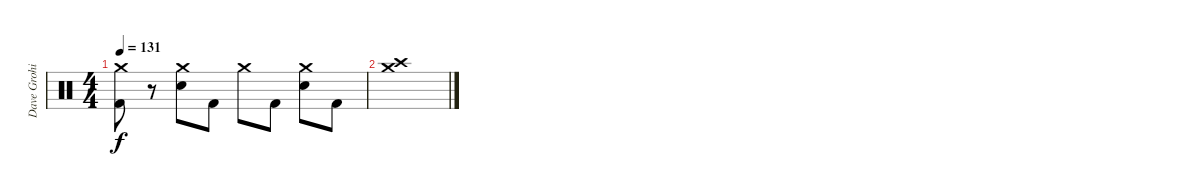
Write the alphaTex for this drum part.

\track ("Dave Grohi" "Dave Grohi") {instrument percussion}
\staff {score}
\articulation defaults
\ts (4 4)
\tempo 131
\clef neutral
\ks c
("Crash medium (hit)" "Kick (hit) 2").8{dy f} r.8 ("Crash medium (hit)" "Snare (hit) 2").8 "Kick (hit) 2".8 "Crash medium (hit)".8 "Kick (hit) 2".8 ("Crash medium (hit)" "Snare (hit) 2").8 "Kick (hit) 2".8 |
("Crash medium (hit)" "Crash high (hit)").1
